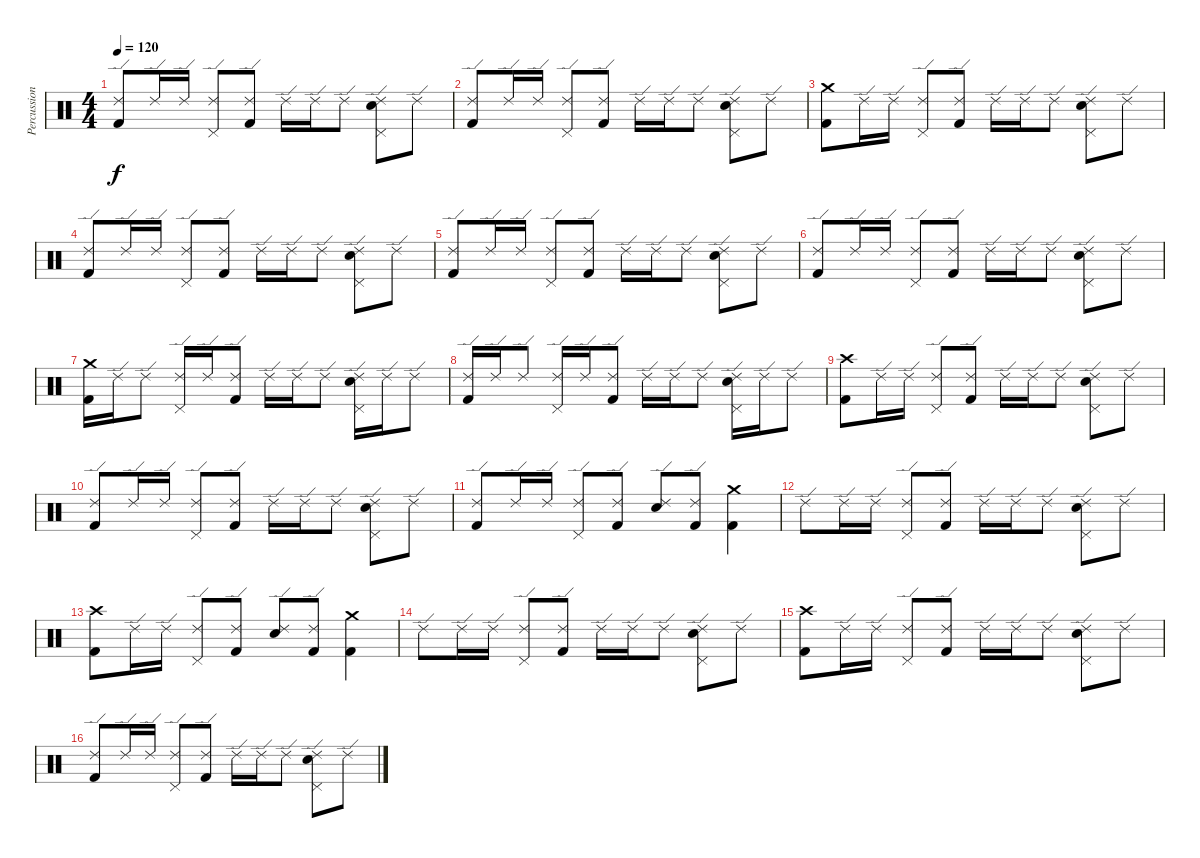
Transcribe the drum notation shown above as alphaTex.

\track ("Percussion" "Percussion") {instrument percussion}
\staff {score}
\articulation defaults
\ts (4 4)
\tempo 120
\clef neutral
\ks c
("Ride (edge) 2" "Kick (hit) 2").8{dy f} "Ride (edge) 2".16 "Ride (edge) 2".16 ("Ride (edge) 2" "Pedal Hi-Hat (hit)").8 ("Ride (edge) 2" "Kick (hit) 2").8 "Ride (edge) 2".16 "Ride (edge) 2".16 "Ride (edge) 2".8 ("Ride (edge) 2" "Pedal Hi-Hat (hit)" "Snare (hit) 2").8 "Ride (edge) 2".8 |
("Ride (edge) 2" "Kick (hit) 2").8 "Ride (edge) 2".16 "Ride (edge) 2".16 ("Ride (edge) 2" "Pedal Hi-Hat (hit)").8 ("Ride (edge) 2" "Kick (hit) 2").8 "Ride (edge) 2".16 "Ride (edge) 2".16 "Ride (edge) 2".8 ("Ride (edge) 2" "Pedal Hi-Hat (hit)" "Snare (hit) 2").8 "Ride (edge) 2".8 |
("Crash medium (hit)" "Kick (hit) 2").8 "Ride (edge) 2".16 "Ride (edge) 2".16 ("Ride (edge) 2" "Pedal Hi-Hat (hit)").8 ("Ride (edge) 2" "Kick (hit) 2").8 "Ride (edge) 2".16 "Ride (edge) 2".16 "Ride (edge) 2".8 ("Ride (edge) 2" "Pedal Hi-Hat (hit)" "Snare (hit) 2").8 "Ride (edge) 2".8 |
("Ride (edge) 2" "Kick (hit) 2").8 "Ride (edge) 2".16 "Ride (edge) 2".16 ("Ride (edge) 2" "Pedal Hi-Hat (hit)").8 ("Ride (edge) 2" "Kick (hit) 2").8 "Ride (edge) 2".16 "Ride (edge) 2".16 "Ride (edge) 2".8 ("Ride (edge) 2" "Pedal Hi-Hat (hit)" "Snare (hit) 2").8 "Ride (edge) 2".8 |
("Ride (edge) 2" "Kick (hit) 2").8 "Ride (edge) 2".16 "Ride (edge) 2".16 ("Ride (edge) 2" "Pedal Hi-Hat (hit)").8 ("Ride (edge) 2" "Kick (hit) 2").8 "Ride (edge) 2".16 "Ride (edge) 2".16 "Ride (edge) 2".8 ("Ride (edge) 2" "Pedal Hi-Hat (hit)" "Snare (hit) 2").8 "Ride (edge) 2".8 |
("Ride (edge) 2" "Kick (hit) 2").8 "Ride (edge) 2".16 "Ride (edge) 2".16 ("Ride (edge) 2" "Pedal Hi-Hat (hit)").8 ("Ride (edge) 2" "Kick (hit) 2").8 "Ride (edge) 2".16 "Ride (edge) 2".16 "Ride (edge) 2".8 ("Ride (edge) 2" "Pedal Hi-Hat (hit)" "Snare (hit) 2").8 "Ride (edge) 2".8 |
("Crash medium (hit)" "Kick (hit) 2").16 "Ride (edge) 2".16 "Ride (edge) 2".8 ("Ride (edge) 2" "Pedal Hi-Hat (hit)").16 "Ride (edge) 2".16 ("Ride (edge) 2" "Kick (hit) 2").8 "Ride (edge) 2".16 "Ride (edge) 2".16 "Ride (edge) 2".8 ("Ride (edge) 2" "Pedal Hi-Hat (hit)" "Snare (hit) 2").16 "Ride (edge) 2".16 "Ride (edge) 2".8 |
("Ride (edge) 2" "Kick (hit) 2").16 "Ride (edge) 2".16 "Ride (edge) 2".8 ("Ride (edge) 2" "Pedal Hi-Hat (hit)").16 "Ride (edge) 2".16 ("Ride (edge) 2" "Kick (hit) 2").8 "Ride (edge) 2".16 "Ride (edge) 2".16 "Ride (edge) 2".8 ("Ride (edge) 2" "Pedal Hi-Hat (hit)" "Snare (hit) 2").16 "Ride (edge) 2".16 "Ride (edge) 2".8 |
("Crash high (hit)" "Kick (hit) 2").8 "Ride (edge) 2".16 "Ride (edge) 2".16 ("Ride (edge) 2" "Pedal Hi-Hat (hit)").8 ("Ride (edge) 2" "Kick (hit) 2").8 "Ride (edge) 2".16 "Ride (edge) 2".16 "Ride (edge) 2".8 ("Ride (edge) 2" "Pedal Hi-Hat (hit)" "Snare (hit) 2").8 "Ride (edge) 2".8 |
("Ride (edge) 2" "Kick (hit) 2").8 "Ride (edge) 2".16 "Ride (edge) 2".16 ("Ride (edge) 2" "Pedal Hi-Hat (hit)").8 ("Ride (edge) 2" "Kick (hit) 2").8 "Ride (edge) 2".16 "Ride (edge) 2".16 "Ride (edge) 2".8 ("Ride (edge) 2" "Pedal Hi-Hat (hit)" "Snare (hit) 2").8 "Ride (edge) 2".8 |
("Ride (edge) 2" "Kick (hit) 2").8 "Ride (edge) 2".16 "Ride (edge) 2".16 ("Ride (edge) 2" "Pedal Hi-Hat (hit)").8 ("Ride (edge) 2" "Kick (hit) 2").8 ("Ride (edge) 2" "Snare (hit) 2").8 ("Ride (edge) 2" "Kick (hit) 2").8 ("Crash medium (hit)" "Kick (hit) 2").4 |
"Ride (edge) 2".8 "Ride (edge) 2".16 "Ride (edge) 2".16 ("Ride (edge) 2" "Pedal Hi-Hat (hit)").8 ("Ride (edge) 2" "Kick (hit) 2").8 "Ride (edge) 2".16 "Ride (edge) 2".16 "Ride (edge) 2".8 ("Ride (edge) 2" "Pedal Hi-Hat (hit)" "Snare (hit) 2").8 "Ride (edge) 2".8 |
("Crash high (hit)" "Kick (hit) 2").8 "Ride (edge) 2".16 "Ride (edge) 2".16 ("Ride (edge) 2" "Pedal Hi-Hat (hit)").8 ("Ride (edge) 2" "Kick (hit) 2").8 ("Ride (edge) 2" "Snare (hit) 2").8 ("Ride (edge) 2" "Kick (hit) 2").8 ("Crash medium (hit)" "Kick (hit) 2").4 |
"Ride (edge) 2".8 "Ride (edge) 2".16 "Ride (edge) 2".16 ("Ride (edge) 2" "Pedal Hi-Hat (hit)").8 ("Ride (edge) 2" "Kick (hit) 2").8 "Ride (edge) 2".16 "Ride (edge) 2".16 "Ride (edge) 2".8 ("Ride (edge) 2" "Pedal Hi-Hat (hit)" "Snare (hit) 2").8 "Ride (edge) 2".8 |
("Crash high (hit)" "Kick (hit) 2").8 "Ride (edge) 2".16 "Ride (edge) 2".16 ("Ride (edge) 2" "Pedal Hi-Hat (hit)").8 ("Ride (edge) 2" "Kick (hit) 2").8 "Ride (edge) 2".16 "Ride (edge) 2".16 "Ride (edge) 2".8 ("Ride (edge) 2" "Pedal Hi-Hat (hit)" "Snare (hit) 2").8 "Ride (edge) 2".8 |
("Ride (edge) 2" "Kick (hit) 2").8 "Ride (edge) 2".16 "Ride (edge) 2".16 ("Ride (edge) 2" "Pedal Hi-Hat (hit)").8 ("Ride (edge) 2" "Kick (hit) 2").8 "Ride (edge) 2".16 "Ride (edge) 2".16 "Ride (edge) 2".8 ("Ride (edge) 2" "Pedal Hi-Hat (hit)" "Snare (hit) 2").8 "Ride (edge) 2".8
